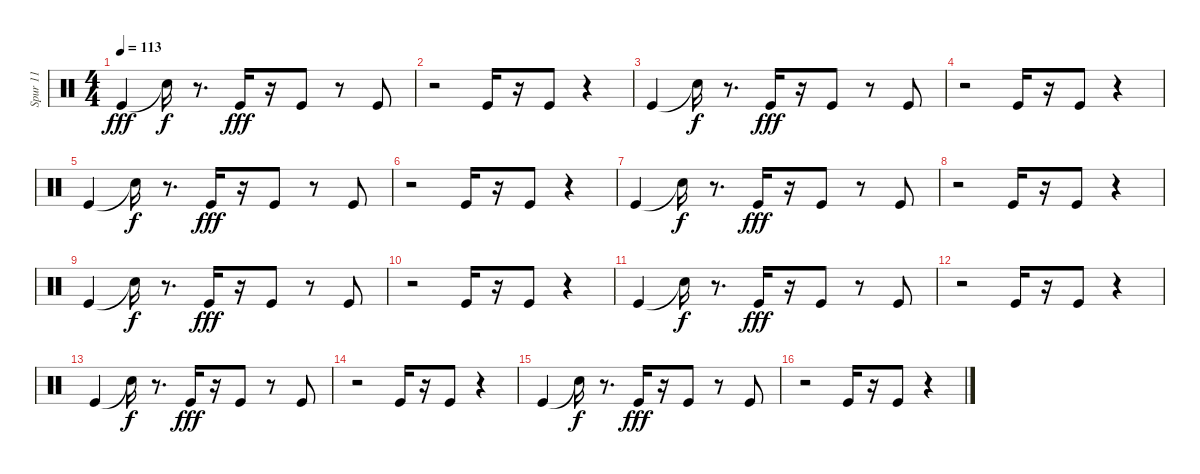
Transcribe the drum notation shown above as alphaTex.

\track ("Spur 11" "Spur 11") {instrument percussion}
\staff {score}
\articulation defaults
\ts (4 4)
\tempo 113
\clef neutral
\ks c "Kick (hit)".4{dy fff} "Snare (hit)"{t}.16{dy f}
r.8{d} "Kick (hit)".16{dy fff} r.16 "Kick (hit)".8 r.8 "Kick (hit)".8 |
r.2 "Kick (hit)".16 r.16 "Kick (hit)".8 r.4 |
"Kick (hit)".4 "Snare (hit)"{t}.16{dy f} r.8{d} "Kick (hit)".16{dy fff} r.16 "Kick (hit)".8 r.8 "Kick (hit)".8 |
r.2 "Kick (hit)".16 r.16 "Kick (hit)".8 r.4 |
"Kick (hit)".4 "Snare (hit)"{t}.16{dy f} r.8{d} "Kick (hit)".16{dy fff} r.16 "Kick (hit)".8 r.8 "Kick (hit)".8 |
r.2 "Kick (hit)".16 r.16 "Kick (hit)".8 r.4 |
"Kick (hit)".4 "Snare (hit)"{t}.16{dy f} r.8{d} "Kick (hit)".16{dy fff} r.16 "Kick (hit)".8 r.8 "Kick (hit)".8 |
r.2 "Kick (hit)".16 r.16 "Kick (hit)".8 r.4 |
"Kick (hit)".4 "Snare (hit)"{t}.16{dy f} r.8{d} "Kick (hit)".16{dy fff} r.16 "Kick (hit)".8 r.8 "Kick (hit)".8 |
r.2 "Kick (hit)".16 r.16 "Kick (hit)".8 r.4 |
"Kick (hit)".4 "Snare (hit)"{t}.16{dy f} r.8{d} "Kick (hit)".16{dy fff} r.16 "Kick (hit)".8 r.8 "Kick (hit)".8 |
r.2 "Kick (hit)".16 r.16 "Kick (hit)".8 r.4 |
"Kick (hit)".4 "Snare (hit)"{t}.16{dy f} r.8{d} "Kick (hit)".16{dy fff} r.16 "Kick (hit)".8 r.8 "Kick (hit)".8 |
r.2 "Kick (hit)".16{volume 12} r.16 "Kick (hit)".8 r.4 |
"Kick (hit)".4 "Snare (hit)"{t}.16{dy f} r.8{d} "Kick (hit)".16{dy fff} r.16 "Kick (hit)".8 r.8 "Kick (hit)".8 |
r.2 "Kick (hit)".16 r.16 "Kick (hit)".8 r.4
